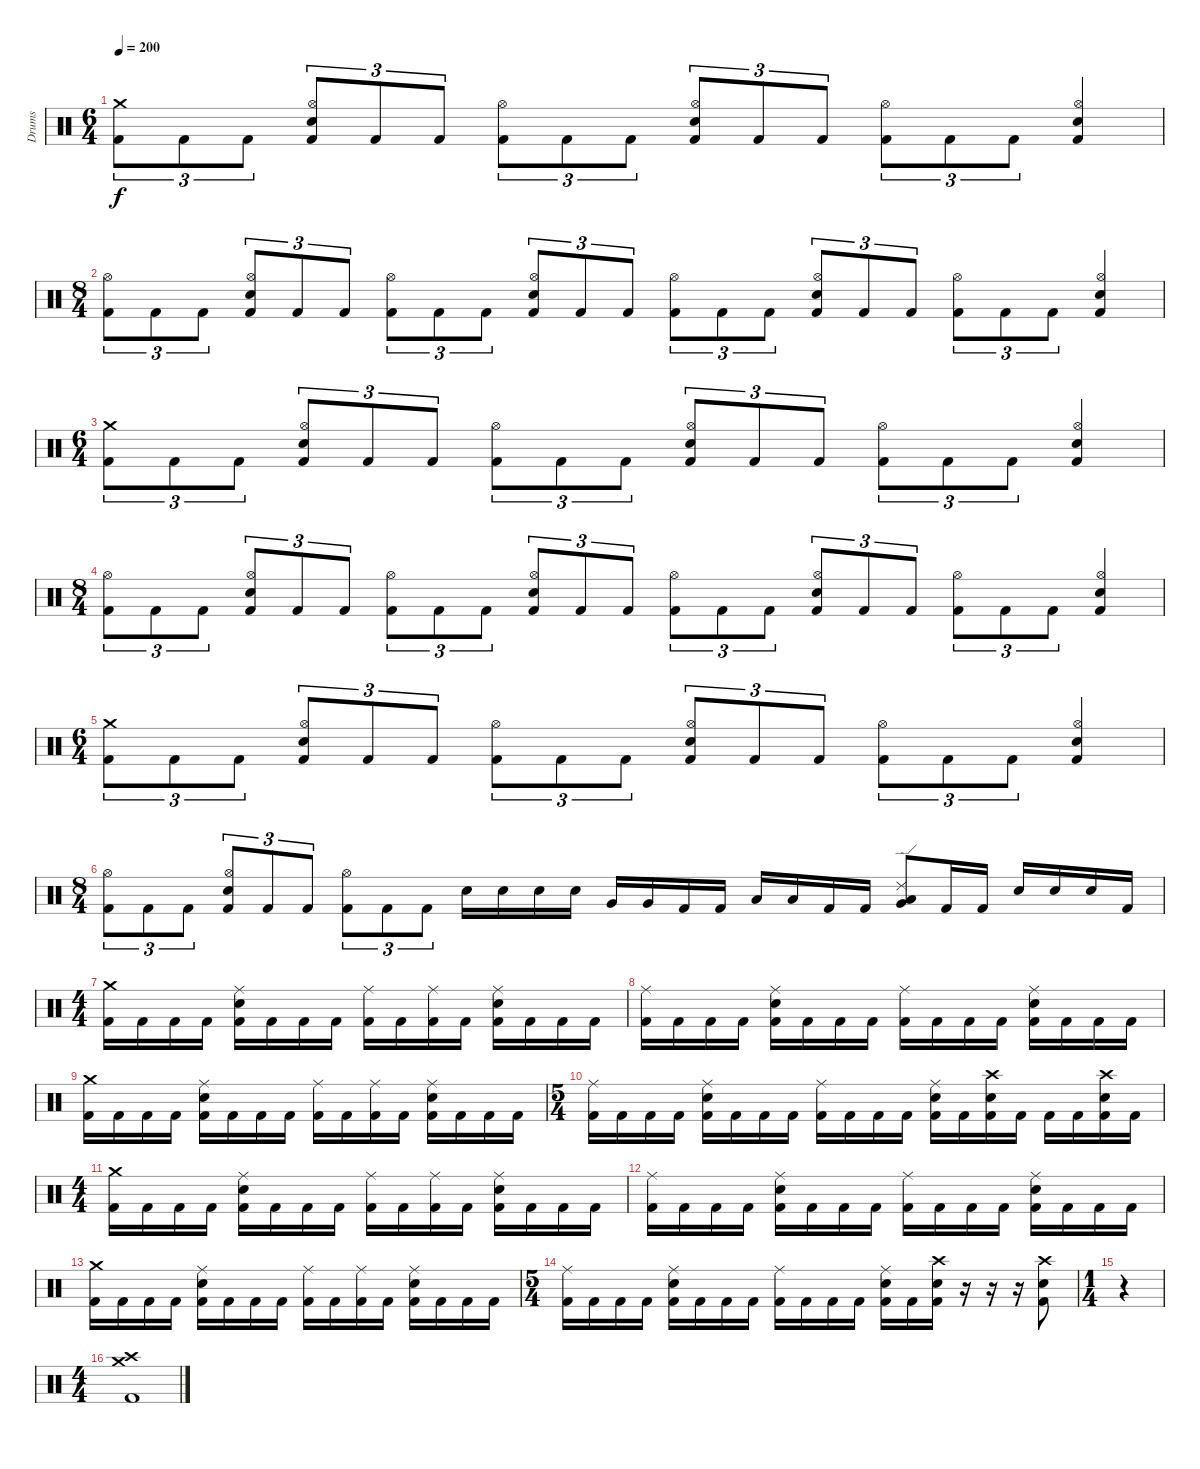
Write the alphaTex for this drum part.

\track ("Drums" "Drums") {instrument percussion}
\staff {score}
\articulation defaults
\ts (6 4)
\tempo 200
\clef neutral
\ks c
("Crash medium (hit)" "Kick (hit) 2").8{tu (3 2) dy f} "Kick (hit) 2".8{tu (3 2)} "Kick (hit) 2".8{tu (3 2)} ("Hi-Hat (open)" "Electric Snare (hit)" "Kick (hit) 2").8{tu (3 2)} "Kick (hit) 2".8{tu (3 2)} "Kick (hit) 2".8{tu (3 2)} ("Hi-Hat (open)" "Kick (hit) 2").8{tu (3 2)} "Kick (hit) 2".8{tu (3 2)} "Kick (hit) 2".8{tu (3 2)} ("Hi-Hat (open)" "Electric Snare (hit)" "Kick (hit) 2").8{tu (3 2)} "Kick (hit) 2".8{tu (3 2)} "Kick (hit) 2".8{tu (3 2)} ("Hi-Hat (open)" "Kick (hit) 2").8{tu (3 2)} "Kick (hit) 2".8{tu (3 2)} "Kick (hit) 2".8{tu (3 2)} ("Hi-Hat (open)" "Electric Snare (hit)" "Kick (hit) 2").4 |
\ts (8 4)
("Hi-Hat (open)" "Kick (hit) 2").8{tu (3 2)} "Kick (hit) 2".8{tu (3 2)} "Kick (hit) 2".8{tu (3 2)} ("Hi-Hat (open)" "Electric Snare (hit)" "Kick (hit) 2").8{tu (3 2)} "Kick (hit) 2".8{tu (3 2)} "Kick (hit) 2".8{tu (3 2)} ("Hi-Hat (open)" "Kick (hit) 2").8{tu (3 2)} "Kick (hit) 2".8{tu (3 2)} "Kick (hit) 2".8{tu (3 2)} ("Hi-Hat (open)" "Electric Snare (hit)" "Kick (hit) 2").8{tu (3 2)} "Kick (hit) 2".8{tu (3 2)} "Kick (hit) 2".8{tu (3 2)} ("Hi-Hat (open)" "Kick (hit) 2").8{tu (3 2)} "Kick (hit) 2".8{tu (3 2)} "Kick (hit) 2".8{tu (3 2)} ("Hi-Hat (open)" "Electric Snare (hit)" "Kick (hit) 2").8{tu (3 2)} "Kick (hit) 2".8{tu (3 2)} "Kick (hit) 2".8{tu (3 2)} ("Hi-Hat (open)" "Kick (hit) 2").8{tu (3 2)} "Kick (hit) 2".8{tu (3 2)} "Kick (hit) 2".8{tu (3 2)} ("Hi-Hat (open)" "Electric Snare (hit)" "Kick (hit) 2").4 |
\ts (6 4)
("Crash medium (hit)" "Kick (hit) 2").8{tu (3 2)} "Kick (hit) 2".8{tu (3 2)} "Kick (hit) 2".8{tu (3 2)} ("Hi-Hat (open)" "Electric Snare (hit)" "Kick (hit) 2").8{tu (3 2)} "Kick (hit) 2".8{tu (3 2)} "Kick (hit) 2".8{tu (3 2)} ("Hi-Hat (open)" "Kick (hit) 2").8{tu (3 2)} "Kick (hit) 2".8{tu (3 2)} "Kick (hit) 2".8{tu (3 2)} ("Hi-Hat (open)" "Electric Snare (hit)" "Kick (hit) 2").8{tu (3 2)} "Kick (hit) 2".8{tu (3 2)} "Kick (hit) 2".8{tu (3 2)} ("Hi-Hat (open)" "Kick (hit) 2").8{tu (3 2)} "Kick (hit) 2".8{tu (3 2)} "Kick (hit) 2".8{tu (3 2)} ("Hi-Hat (open)" "Electric Snare (hit)" "Kick (hit) 2").4 |
\ts (8 4)
("Hi-Hat (open)" "Kick (hit) 2").8{tu (3 2)} "Kick (hit) 2".8{tu (3 2)} "Kick (hit) 2".8{tu (3 2)} ("Hi-Hat (open)" "Electric Snare (hit)" "Kick (hit) 2").8{tu (3 2)} "Kick (hit) 2".8{tu (3 2)} "Kick (hit) 2".8{tu (3 2)} ("Hi-Hat (open)" "Kick (hit) 2").8{tu (3 2)} "Kick (hit) 2".8{tu (3 2)} "Kick (hit) 2".8{tu (3 2)} ("Hi-Hat (open)" "Electric Snare (hit)" "Kick (hit) 2").8{tu (3 2)} "Kick (hit) 2".8{tu (3 2)} "Kick (hit) 2".8{tu (3 2)} ("Hi-Hat (open)" "Kick (hit) 2").8{tu (3 2)} "Kick (hit) 2".8{tu (3 2)} "Kick (hit) 2".8{tu (3 2)} ("Hi-Hat (open)" "Electric Snare (hit)" "Kick (hit) 2").8{tu (3 2)} "Kick (hit) 2".8{tu (3 2)} "Kick (hit) 2".8{tu (3 2)} ("Hi-Hat (open)" "Kick (hit) 2").8{tu (3 2)} "Kick (hit) 2".8{tu (3 2)} "Kick (hit) 2".8{tu (3 2)} ("Hi-Hat (open)" "Electric Snare (hit)" "Kick (hit) 2").4 |
\ts (6 4)
("Crash medium (hit)" "Kick (hit) 2").8{tu (3 2)} "Kick (hit) 2".8{tu (3 2)} "Kick (hit) 2".8{tu (3 2)} ("Hi-Hat (open)" "Electric Snare (hit)" "Kick (hit) 2").8{tu (3 2)} "Kick (hit) 2".8{tu (3 2)} "Kick (hit) 2".8{tu (3 2)} ("Hi-Hat (open)" "Kick (hit) 2").8{tu (3 2)} "Kick (hit) 2".8{tu (3 2)} "Kick (hit) 2".8{tu (3 2)} ("Hi-Hat (open)" "Electric Snare (hit)" "Kick (hit) 2").8{tu (3 2)} "Kick (hit) 2".8{tu (3 2)} "Kick (hit) 2".8{tu (3 2)} ("Hi-Hat (open)" "Kick (hit) 2").8{tu (3 2)} "Kick (hit) 2".8{tu (3 2)} "Kick (hit) 2".8{tu (3 2)} ("Hi-Hat (open)" "Electric Snare (hit)" "Kick (hit) 2").4 |
\ts (8 4)
("Hi-Hat (open)" "Kick (hit) 2").8{tu (3 2)} "Kick (hit) 2".8{tu (3 2)} "Kick (hit) 2".8{tu (3 2)} ("Hi-Hat (open)" "Electric Snare (hit)" "Kick (hit) 2").8{tu (3 2)} "Kick (hit) 2".8{tu (3 2)} "Kick (hit) 2".8{tu (3 2)} ("Hi-Hat (open)" "Kick (hit) 2").8{tu (3 2)} "Kick (hit) 2".8{tu (3 2)} "Kick (hit) 2".8{tu (3 2)} "Electric Snare (hit)".16 "Electric Snare (hit)".16 "Electric Snare (hit)".16 "Electric Snare (hit)".16 "Very Low Tom (hit)".16 "Very Low Tom (hit)".16 "Kick (hit) 2".16 "Kick (hit) 2".16 "Low Floor Tom (hit)".16 "Low Floor Tom (hit)".16 "Kick (hit) 2".16 "Kick (hit) 2".16 ("Ride (edge) 2" "Low Floor Tom (hit)" "Very Low Tom (hit)").8 "Kick (hit) 2".16 "Kick (hit) 2".16 "Electric Snare (hit)".16 "Electric Snare (hit)".16 "Electric Snare (hit)".16 "Kick (hit) 2".16 |
\ts (4 4)
\section ("" "")
("Crash medium (hit)" "Kick (hit) 2").16 "Kick (hit) 2".16 "Kick (hit) 2".16 "Kick (hit) 2".16 ("Ride (middle)" "Electric Snare (hit)" "Kick (hit) 2").16 "Kick (hit) 2".16 "Kick (hit) 2".16 "Kick (hit) 2".16 ("Ride (middle)" "Kick (hit) 2").16 "Kick (hit) 2".16 ("Ride (middle)" "Kick (hit) 2").16 "Kick (hit) 2".16 ("Ride (middle)" "Electric Snare (hit)" "Kick (hit) 2").16 "Kick (hit) 2".16 "Kick (hit) 2".16 "Kick (hit) 2".16 |
("Ride (middle)" "Kick (hit) 2").16 "Kick (hit) 2".16 "Kick (hit) 2".16 "Kick (hit) 2".16 ("Ride (middle)" "Electric Snare (hit)" "Kick (hit) 2").16 "Kick (hit) 2".16 "Kick (hit) 2".16 "Kick (hit) 2".16 ("Ride (middle)" "Kick (hit) 2").16 "Kick (hit) 2".16 "Kick (hit) 2".16 "Kick (hit) 2".16 ("Ride (middle)" "Electric Snare (hit)" "Kick (hit) 2").16 "Kick (hit) 2".16 "Kick (hit) 2".16 "Kick (hit) 2".16 |
("Crash medium (hit)" "Kick (hit) 2").16 "Kick (hit) 2".16 "Kick (hit) 2".16 "Kick (hit) 2".16 ("Ride (middle)" "Electric Snare (hit)" "Kick (hit) 2").16 "Kick (hit) 2".16 "Kick (hit) 2".16 "Kick (hit) 2".16 ("Ride (middle)" "Kick (hit) 2").16 "Kick (hit) 2".16 ("Ride (middle)" "Kick (hit) 2").16 "Kick (hit) 2".16 ("Ride (middle)" "Electric Snare (hit)" "Kick (hit) 2").16 "Kick (hit) 2".16 "Kick (hit) 2".16 "Kick (hit) 2".16 |
\ts (5 4)
("Ride (middle)" "Kick (hit) 2").16 "Kick (hit) 2".16 "Kick (hit) 2".16 "Kick (hit) 2".16 ("Ride (middle)" "Electric Snare (hit)" "Kick (hit) 2").16 "Kick (hit) 2".16 "Kick (hit) 2".16 "Kick (hit) 2".16 ("Ride (middle)" "Kick (hit) 2").16 "Kick (hit) 2".16 "Kick (hit) 2".16 "Kick (hit) 2".16 ("Ride (middle)" "Electric Snare (hit)" "Kick (hit) 2").16 "Kick (hit) 2".16 ("Crash high (hit)" "Electric Snare (hit)" "Kick (hit) 2").16 "Kick (hit) 2".16 "Kick (hit) 2".16 "Kick (hit) 2".16 ("Crash high (hit)" "Electric Snare (hit)" "Kick (hit) 2").16 "Kick (hit) 2".16 |
\ts (4 4)
("Crash medium (hit)" "Kick (hit) 2").16 "Kick (hit) 2".16 "Kick (hit) 2".16 "Kick (hit) 2".16 ("Ride (middle)" "Electric Snare (hit)" "Kick (hit) 2").16 "Kick (hit) 2".16 "Kick (hit) 2".16 "Kick (hit) 2".16 ("Ride (middle)" "Kick (hit) 2").16 "Kick (hit) 2".16 ("Ride (middle)" "Kick (hit) 2").16 "Kick (hit) 2".16 ("Ride (middle)" "Electric Snare (hit)" "Kick (hit) 2").16 "Kick (hit) 2".16 "Kick (hit) 2".16 "Kick (hit) 2".16 |
("Ride (middle)" "Kick (hit) 2").16 "Kick (hit) 2".16 "Kick (hit) 2".16 "Kick (hit) 2".16 ("Ride (middle)" "Electric Snare (hit)" "Kick (hit) 2").16 "Kick (hit) 2".16 "Kick (hit) 2".16 "Kick (hit) 2".16 ("Ride (middle)" "Kick (hit) 2").16 "Kick (hit) 2".16 "Kick (hit) 2".16 "Kick (hit) 2".16 ("Ride (middle)" "Electric Snare (hit)" "Kick (hit) 2").16 "Kick (hit) 2".16 "Kick (hit) 2".16 "Kick (hit) 2".16 |
("Crash medium (hit)" "Kick (hit) 2").16 "Kick (hit) 2".16 "Kick (hit) 2".16 "Kick (hit) 2".16 ("Ride (middle)" "Electric Snare (hit)" "Kick (hit) 2").16 "Kick (hit) 2".16 "Kick (hit) 2".16 "Kick (hit) 2".16 ("Ride (middle)" "Kick (hit) 2").16 "Kick (hit) 2".16 ("Ride (middle)" "Kick (hit) 2").16 "Kick (hit) 2".16 ("Ride (middle)" "Electric Snare (hit)" "Kick (hit) 2").16 "Kick (hit) 2".16 "Kick (hit) 2".16 "Kick (hit) 2".16 |
\ts (5 4)
("Ride (middle)" "Kick (hit) 2").16 "Kick (hit) 2".16 "Kick (hit) 2".16 "Kick (hit) 2".16 ("Ride (middle)" "Electric Snare (hit)" "Kick (hit) 2").16 "Kick (hit) 2".16 "Kick (hit) 2".16 "Kick (hit) 2".16 ("Ride (middle)" "Kick (hit) 2").16 "Kick (hit) 2".16 "Kick (hit) 2".16 "Kick (hit) 2".16 ("Ride (middle)" "Electric Snare (hit)" "Kick (hit) 2").16 "Kick (hit) 2".16 ("Crash high (hit)" "Electric Snare (hit)" "Kick (hit) 2").16 r.16 r.16 r.16 ("Crash high (hit)" "Electric Snare (hit)" "Kick (hit) 2").8 |
\ts (1 4)
r.4 |
\ts (4 4)
\section ("" "")
("Crash high (hit)" "Crash medium (hit)" "Kick (hit) 2").1
